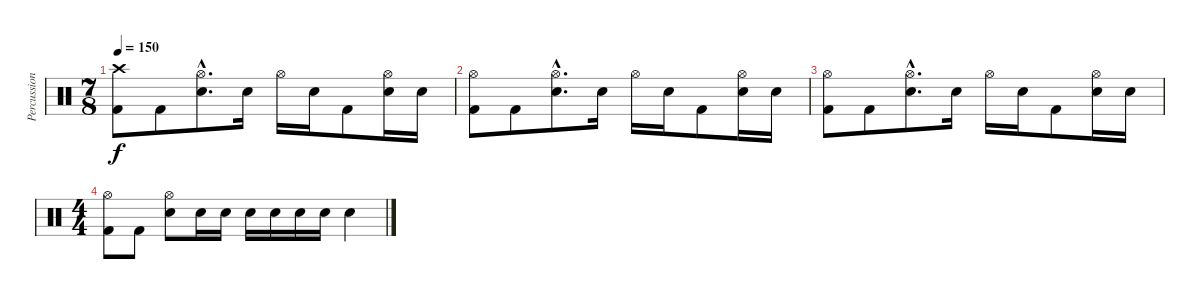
\track ("Percussion" "Percussion") {instrument percussion}
\staff {score}
\articulation defaults
\ts (7 8)
\tempo 150
\clef neutral
\ks c
("Crash high (hit)" "Kick (hit) 2").8{dy f} "Kick (hit) 2".8 ("Hi-Hat (open)"{hac} "Electric Snare (hit)"{hac}).8{d} "Electric Snare (hit)".16 "Hi-Hat (open)".16 "Electric Snare (hit)".16 "Kick (hit) 2".8 ("Hi-Hat (open)" "Electric Snare (hit)").16 "Electric Snare (hit)".16 |
("Hi-Hat (open)" "Kick (hit) 2").8 "Kick (hit) 2".8 ("Hi-Hat (open)"{hac} "Electric Snare (hit)"{hac}).8{d} "Electric Snare (hit)".16 "Hi-Hat (open)".16 "Electric Snare (hit)".16 "Kick (hit) 2".8 ("Hi-Hat (open)" "Electric Snare (hit)").16 "Electric Snare (hit)".16 |
("Hi-Hat (open)" "Kick (hit) 2").8 "Kick (hit) 2".8 ("Hi-Hat (open)"{hac} "Electric Snare (hit)"{hac}).8{d} "Electric Snare (hit)".16 "Hi-Hat (open)".16 "Electric Snare (hit)".16 "Kick (hit) 2".8 ("Hi-Hat (open)" "Electric Snare (hit)").16 "Electric Snare (hit)".16 |
\ts (4 4)
("Hi-Hat (open)" "Kick (hit) 2").8 "Kick (hit) 2".8 ("Hi-Hat (open)" "Electric Snare (hit)").8 "Electric Snare (hit)".16 "Electric Snare (hit)".16 "Electric Snare (hit)".16 "Electric Snare (hit)".16 "Electric Snare (hit)".16 "Electric Snare (hit)".16 "Electric Snare (hit)".4
